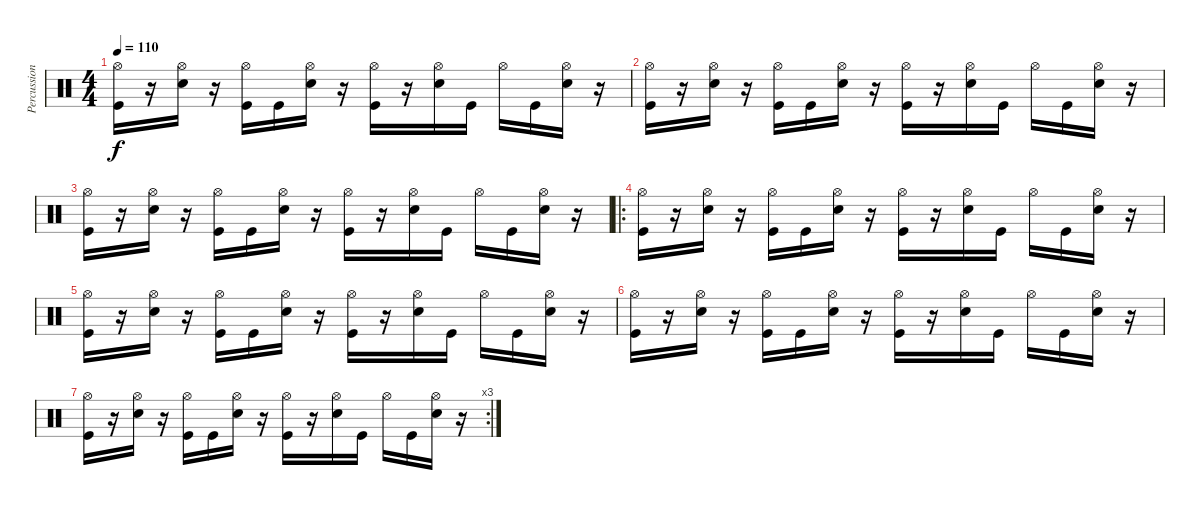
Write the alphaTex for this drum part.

\track ("Percussion" "Percussion") {instrument percussion}
\staff {score}
\articulation defaults
\ts (4 4)
\tempo 110
\clef neutral
\ks c
("Hi-Hat (open)" "Kick (hit)").16{dy f} r.16 ("Hi-Hat (open)" "Electric Snare (hit)").16 r.16 ("Hi-Hat (open)" "Kick (hit)").16 "Kick (hit)".16 ("Hi-Hat (open)" "Electric Snare (hit)").16 r.16 ("Hi-Hat (open)" "Kick (hit)").16 r.16 ("Hi-Hat (open)" "Electric Snare (hit)").16 "Kick (hit)".16 "Hi-Hat (open)".16 "Kick (hit)".16 ("Hi-Hat (open)" "Electric Snare (hit)").16 r.16 |
("Hi-Hat (open)" "Kick (hit)").16 r.16 ("Hi-Hat (open)" "Electric Snare (hit)").16 r.16 ("Hi-Hat (open)" "Kick (hit)").16 "Kick (hit)".16 ("Hi-Hat (open)" "Electric Snare (hit)").16 r.16 ("Hi-Hat (open)" "Kick (hit)").16 r.16 ("Hi-Hat (open)" "Electric Snare (hit)").16 "Kick (hit)".16 "Hi-Hat (open)".16 "Kick (hit)".16 ("Hi-Hat (open)" "Electric Snare (hit)").16 r.16 |
("Hi-Hat (open)" "Kick (hit)").16 r.16 ("Hi-Hat (open)" "Electric Snare (hit)").16 r.16 ("Hi-Hat (open)" "Kick (hit)").16 "Kick (hit)".16 ("Hi-Hat (open)" "Electric Snare (hit)").16 r.16 ("Hi-Hat (open)" "Kick (hit)").16 r.16 ("Hi-Hat (open)" "Electric Snare (hit)").16 "Kick (hit)".16 "Hi-Hat (open)".16 "Kick (hit)".16 ("Hi-Hat (open)" "Electric Snare (hit)").16 r.16 |
\ro
("Hi-Hat (open)" "Kick (hit)").16 r.16 ("Hi-Hat (open)" "Electric Snare (hit)").16 r.16 ("Hi-Hat (open)" "Kick (hit)").16 "Kick (hit)".16 ("Hi-Hat (open)" "Electric Snare (hit)").16 r.16 ("Hi-Hat (open)" "Kick (hit)").16 r.16 ("Hi-Hat (open)" "Electric Snare (hit)").16 "Kick (hit)".16 "Hi-Hat (open)".16 "Kick (hit)".16 ("Hi-Hat (open)" "Electric Snare (hit)").16 r.16 |
("Hi-Hat (open)" "Kick (hit)").16 r.16 ("Hi-Hat (open)" "Electric Snare (hit)").16 r.16 ("Hi-Hat (open)" "Kick (hit)").16 "Kick (hit)".16 ("Hi-Hat (open)" "Electric Snare (hit)").16 r.16 ("Hi-Hat (open)" "Kick (hit)").16 r.16 ("Hi-Hat (open)" "Electric Snare (hit)").16 "Kick (hit)".16 "Hi-Hat (open)".16 "Kick (hit)".16 ("Hi-Hat (open)" "Electric Snare (hit)").16 r.16 |
("Hi-Hat (open)" "Kick (hit)").16 r.16 ("Hi-Hat (open)" "Electric Snare (hit)").16 r.16 ("Hi-Hat (open)" "Kick (hit)").16 "Kick (hit)".16 ("Hi-Hat (open)" "Electric Snare (hit)").16 r.16 ("Hi-Hat (open)" "Kick (hit)").16 r.16 ("Hi-Hat (open)" "Electric Snare (hit)").16 "Kick (hit)".16 "Hi-Hat (open)".16 "Kick (hit)".16 ("Hi-Hat (open)" "Electric Snare (hit)").16 r.16 |
\rc 3
("Hi-Hat (open)" "Kick (hit)").16 r.16 ("Hi-Hat (open)" "Electric Snare (hit)").16 r.16 ("Hi-Hat (open)" "Kick (hit)").16 "Kick (hit)".16 ("Hi-Hat (open)" "Electric Snare (hit)").16 r.16 ("Hi-Hat (open)" "Kick (hit)").16 r.16 ("Hi-Hat (open)" "Electric Snare (hit)").16 "Kick (hit)".16 "Hi-Hat (open)".16 "Kick (hit)".16 ("Hi-Hat (open)" "Electric Snare (hit)").16 r.16
